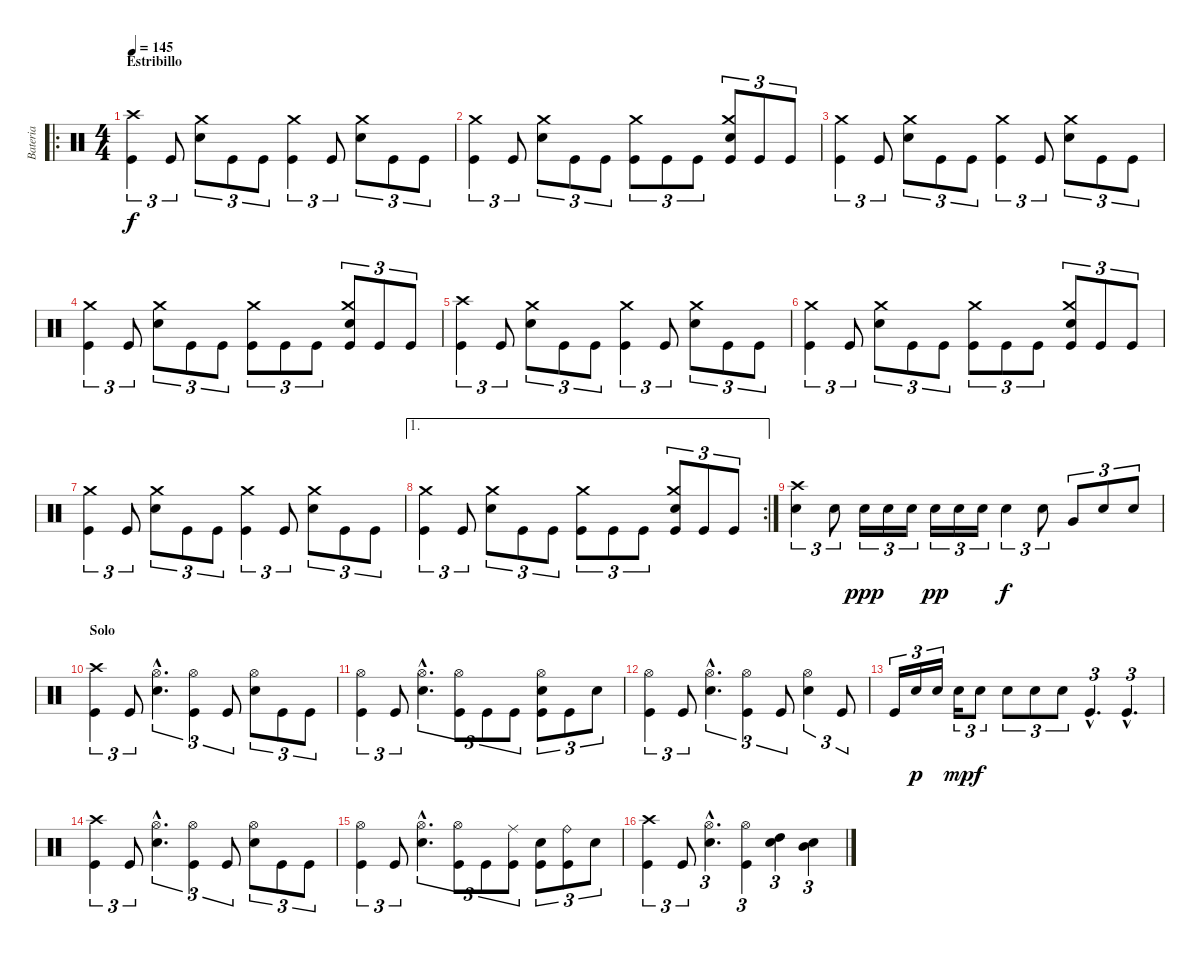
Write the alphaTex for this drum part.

\track ("Bateria" "Bateria") {instrument percussion}
\staff {score}
\articulation defaults
\ro
\ts (4 4)
\section ("" "Estribillo")
\tempo 145
\clef neutral
\ks c
("Crash high (hit)" "Kick (hit)").4{tu (3 2) dy f} "Kick (hit)".8{tu (3 2)} ("Crash medium (hit)" "Snare (hit) 2").8{tu (3 2)} "Kick (hit)".8{tu (3 2)} "Kick (hit)".8{tu (3 2)} ("Crash medium (hit)" "Kick (hit)").4{tu (3 2)} "Kick (hit)".8{tu (3 2)} ("Crash medium (hit)" "Snare (hit) 2").8{tu (3 2)} "Kick (hit)".8{tu (3 2)} "Kick (hit)".8{tu (3 2)} |
("Crash medium (hit)" "Kick (hit)").4{tu (3 2)} "Kick (hit)".8{tu (3 2)} ("Crash medium (hit)" "Snare (hit) 2").8{tu (3 2)} "Kick (hit)".8{tu (3 2)} "Kick (hit)".8{tu (3 2)} ("Crash medium (hit)" "Kick (hit)").8{tu (3 2)} "Kick (hit)".8{tu (3 2)} "Kick (hit)".8{tu (3 2)} ("Crash medium (hit)" "Snare (hit) 2" "Kick (hit)").8{tu (3 2)} "Kick (hit)".8{tu (3 2)} "Kick (hit)".8{tu (3 2)} |
("Crash medium (hit)" "Kick (hit)").4{tu (3 2)} "Kick (hit)".8{tu (3 2)} ("Crash medium (hit)" "Snare (hit) 2").8{tu (3 2)} "Kick (hit)".8{tu (3 2)} "Kick (hit)".8{tu (3 2)} ("Crash medium (hit)" "Kick (hit)").4{tu (3 2)} "Kick (hit)".8{tu (3 2)} ("Crash medium (hit)" "Snare (hit) 2").8{tu (3 2)} "Kick (hit)".8{tu (3 2)} "Kick (hit)".8{tu (3 2)} |
("Crash medium (hit)" "Kick (hit)").4{tu (3 2)} "Kick (hit)".8{tu (3 2)} ("Crash medium (hit)" "Snare (hit) 2").8{tu (3 2)} "Kick (hit)".8{tu (3 2)} "Kick (hit)".8{tu (3 2)} ("Crash medium (hit)" "Kick (hit)").8{tu (3 2)} "Kick (hit)".8{tu (3 2)} "Kick (hit)".8{tu (3 2)} ("Crash medium (hit)" "Snare (hit) 2" "Kick (hit)").8{tu (3 2)} "Kick (hit)".8{tu (3 2)} "Kick (hit)".8{tu (3 2)} |
("Crash high (hit)" "Kick (hit)").4{tu (3 2)} "Kick (hit)".8{tu (3 2)} ("Crash medium (hit)" "Snare (hit) 2").8{tu (3 2)} "Kick (hit)".8{tu (3 2)} "Kick (hit)".8{tu (3 2)} ("Crash medium (hit)" "Kick (hit)").4{tu (3 2)} "Kick (hit)".8{tu (3 2)} ("Crash medium (hit)" "Snare (hit) 2").8{tu (3 2)} "Kick (hit)".8{tu (3 2)} "Kick (hit)".8{tu (3 2)} |
("Crash medium (hit)" "Kick (hit)").4{tu (3 2)} "Kick (hit)".8{tu (3 2)} ("Crash medium (hit)" "Snare (hit) 2").8{tu (3 2)} "Kick (hit)".8{tu (3 2)} "Kick (hit)".8{tu (3 2)} ("Crash medium (hit)" "Kick (hit)").8{tu (3 2)} "Kick (hit)".8{tu (3 2)} "Kick (hit)".8{tu (3 2)} ("Crash medium (hit)" "Snare (hit) 2" "Kick (hit)").8{tu (3 2)} "Kick (hit)".8{tu (3 2)} "Kick (hit)".8{tu (3 2)} |
("Crash medium (hit)" "Kick (hit)").4{tu (3 2)} "Kick (hit)".8{tu (3 2)} ("Crash medium (hit)" "Snare (hit) 2").8{tu (3 2)} "Kick (hit)".8{tu (3 2)} "Kick (hit)".8{tu (3 2)} ("Crash medium (hit)" "Kick (hit)").4{tu (3 2)} "Kick (hit)".8{tu (3 2)} ("Crash medium (hit)" "Snare (hit) 2").8{tu (3 2)} "Kick (hit)".8{tu (3 2)} "Kick (hit)".8{tu (3 2)} |
\ae 1
\rc 2
("Crash medium (hit)" "Kick (hit)").4{tu (3 2)} "Kick (hit)".8{tu (3 2)} ("Crash medium (hit)" "Snare (hit) 2").8{tu (3 2)} "Kick (hit)".8{tu (3 2)} "Kick (hit)".8{tu (3 2)} ("Crash medium (hit)" "Kick (hit)").8{tu (3 2)} "Kick (hit)".8{tu (3 2)} "Kick (hit)".8{tu (3 2)} ("Crash medium (hit)" "Snare (hit) 2" "Kick (hit)").8{tu (3 2)} "Kick (hit)".8{tu (3 2)} "Kick (hit)".8{tu (3 2)} |
("Crash high (hit)" "Snare (hit) 2").4{tu (3 2)} "Snare (hit) 2".8{tu (3 2)} "Snare (hit) 2".16{tu (3 2) dy ppp} "Snare (hit) 2".16{tu (3 2)} "Snare (hit) 2".16{tu (3 2)} "Snare (hit) 2".16{tu (3 2) dy pp} "Snare (hit) 2".16{tu (3 2)} "Snare (hit) 2".16{tu (3 2)} "Snare (hit) 2".4{tu (3 2) dy f} "Snare (hit) 2".8{tu (3 2)} "Very Low Tom (hit)".8{tu (3 2)} "Snare (hit) 2".8{tu (3 2)} "Snare (hit) 2".8{tu (3 2)} |
\section ("" "Solo")
("Crash high (hit)" "Kick (hit)").4{tu (3 2)} "Kick (hit)".8{tu (3 2)} ("Hi-Hat (open)"{hac} "Snare (hit) 2"{hac}).4{d tu (3 2)} ("Hi-Hat (open)" "Kick (hit)").4{tu (3 2)} "Kick (hit)".8{tu (3 2)} ("Hi-Hat (open)" "Snare (hit) 2").8{tu (3 2)} "Kick (hit)".8{tu (3 2)} "Kick (hit)".8{tu (3 2)} |
("Hi-Hat (open)" "Kick (hit)").4{tu (3 2)} "Kick (hit)".8{tu (3 2)} ("Hi-Hat (open)"{hac} "Snare (hit) 2"{hac}).4{d tu (3 2)} ("Hi-Hat (open)" "Kick (hit)").8{tu (3 2)} "Kick (hit)".8{tu (3 2)} "Kick (hit)".8{tu (3 2)} ("Hi-Hat (open)" "Snare (hit) 2" "Kick (hit)").8{tu (3 2)} "Kick (hit)".8{tu (3 2)} "Snare (hit) 2".8{tu (3 2)} |
("Hi-Hat (open)" "Kick (hit)").4{tu (3 2)} "Kick (hit)".8{tu (3 2)} ("Hi-Hat (open)"{hac} "Snare (hit) 2"{hac}).4{d tu (3 2)} ("Hi-Hat (open)" "Kick (hit)").4{tu (3 2)} "Kick (hit)".8{tu (3 2)} ("Hi-Hat (open)" "Snare (hit) 2").4{tu (3 2)} "Kick (hit)".8{tu (3 2)} |
"Kick (hit)".16{tu (3 2)} "Snare (hit) 2".16{tu (3 2) dy p} "Snare (hit) 2".16{tu (3 2)} "Snare (hit) 2".16{tu (3 2) dy mp} "Snare (hit) 2".8{tu (3 2) dy f} "Snare (hit) 2".8{tu (3 2)} "Snare (hit) 2".8{tu (3 2)} "Snare (hit) 2".8{tu (3 2)} "Kick (hit)"{hac}.4{d tu (3 2)} "Kick (hit)"{hac}.4{d tu (3 2)} |
("Crash high (hit)" "Kick (hit)").4{tu (3 2)} "Kick (hit)".8{tu (3 2)} ("Hi-Hat (open)"{hac} "Snare (hit) 2"{hac}).4{d tu (3 2)} ("Hi-Hat (open)" "Kick (hit)").4{tu (3 2)} "Kick (hit)".8{tu (3 2)} ("Hi-Hat (open)" "Snare (hit) 2").8{tu (3 2)} "Kick (hit)".8{tu (3 2)} "Kick (hit)".8{tu (3 2)} |
("Hi-Hat (open)" "Kick (hit)").4{tu (3 2)} "Kick (hit)".8{tu (3 2)} ("Hi-Hat (open)"{hac} "Snare (hit) 2"{hac}).4{d tu (3 2)} ("Hi-Hat (open)" "Kick (hit)").8{tu (3 2)} "Kick (hit)".8{tu (3 2)} ("Ride (middle)" "Kick (hit)").8{tu (3 2)} ("Snare (hit) 2" "Kick (hit)").8{tu (3 2)} ("Ride (bell)" "Kick (hit)").8{tu (3 2)} "Snare (hit) 2".8{tu (3 2)} |
("Crash high (hit)" "Kick (hit)").4{tu (3 2)} "Kick (hit)".8{tu (3 2)} ("Hi-Hat (open)"{hac} "Snare (hit) 2"{hac}).4{d tu (3 2)} ("Hi-Hat (open)" "Kick (hit)").4{tu (3 2)} ("High Tom (hit)" "Snare (hit) 2").4{tu (3 2)} ("Mid Tom (hit)" "Snare (hit) 2").4{tu (3 2)}
